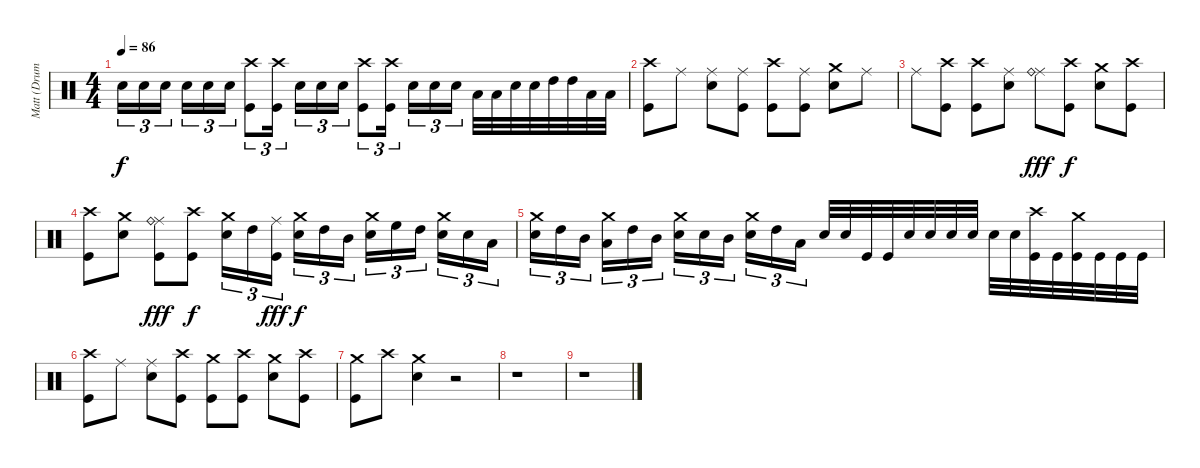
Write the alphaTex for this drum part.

\track ("Matt (Drums)" "Matt (Drum") {instrument percussion}
\staff {score}
\articulation defaults
\ts (4 4)
\tempo 86
\clef neutral
\ks c "Electric Snare (hit)".16{tu (3 2) dy f} "Electric Snare (hit)".16{tu (3 2)} "Electric Snare (hit)".16{tu (3 2)} "Electric Snare (hit)".16{tu (3 2)} "Electric Snare (hit)".16{tu (3 2)} "Electric Snare (hit)".16{tu (3 2)}
("Crash high (hit)" "Kick (hit)").8{tu (3 2)} ("Crash high (hit)" "Kick (hit)").16{tu (3 2)} "Electric Snare (hit)".16{tu (3 2)} "Electric Snare (hit)".16{tu (3 2)} "Electric Snare (hit)".16{tu (3 2)} ("Crash high (hit)" "Kick (hit)").8{tu (3 2)} ("Crash high (hit)" "Kick (hit)").16{tu (3 2)} "Electric Snare (hit)".16{tu (3 2)} "Electric Snare (hit)".16{tu (3 2)} "Electric Snare (hit)".16{tu (3 2)} "Low Tom (hit)".32 "Low Tom (hit)".32 "Electric Snare (hit)".32 "Electric Snare (hit)".32 "High Tom (hit)".32 "High Tom (hit)".32 "Low Tom (hit)".32 "Low Tom (hit)".32 |
("Crash high (hit)" "Kick (hit)").8 "Ride (middle)".8 ("Ride (middle)" "Electric Snare (hit)").8 ("Ride (middle)" "Kick (hit)").8 ("Crash high (hit)" "Kick (hit)").8 ("Ride (middle)" "Kick (hit)").8 ("Crash medium (hit)" "Electric Snare (hit)").8 "Ride (middle)".8 |
"Ride (middle)".8 ("Crash high (hit)" "Kick (hit)").8 ("Crash high (hit)" "Kick (hit)").8 ("Ride (middle)" "Electric Snare (hit)").8 ("Ride (middle)" "Ride (bell)").8{dy fff} ("Crash high (hit)" "Kick (hit)").8{dy f} ("Crash medium (hit)" "Electric Snare (hit)").8 ("Crash high (hit)" "Kick (hit)").8 |
("Crash high (hit)" "Kick (hit)").8 ("Crash medium (hit)" "Electric Snare (hit)").8 ("Ride (middle)" "Ride (bell)" "Kick (hit)").8{dy fff} ("Crash high (hit)" "Kick (hit)").8{dy f} ("Crash medium (hit)" "Electric Snare (hit)").16{tu (3 2)} "High Tom (hit)".16{tu (3 2)} ("Ride (middle)" "Kick (hit)").16{tu (3 2) dy fff} ("Crash medium (hit)" "Electric Snare (hit)").16{tu (3 2) dy f} "High Tom (hit)".16{tu (3 2)} "Mid Tom (hit)".16{tu (3 2)} ("Crash medium (hit)" "Electric Snare (hit)").16{tu (3 2)} "High Floor Tom (hit)".16{tu (3 2)} "High Tom (hit)".16{tu (3 2)} ("Crash medium (hit)" "Electric Snare (hit)").16{tu (3 2)} "Electric Snare (hit)".16{tu (3 2)} "Low Tom (hit)".16{tu (3 2)} |
("Crash medium (hit)" "Electric Snare (hit)").16{tu (3 2)} "High Tom (hit)".16{tu (3 2)} "Mid Tom (hit)".16{tu (3 2)} ("Crash medium (hit)" "Low Tom (hit)").16{tu (3 2)} "High Tom (hit)".16{tu (3 2)} "Mid Tom (hit)".16{tu (3 2)} ("Crash medium (hit)" "Electric Snare (hit)").16{tu (3 2)} "Electric Snare (hit)".16{tu (3 2)} "Mid Tom (hit)".16{tu (3 2)} ("Crash medium (hit)" "Electric Snare (hit)").16{tu (3 2)} "High Tom (hit)".16{tu (3 2)} "Low Tom (hit)".16{tu (3 2)} "Electric Snare (hit)".32 "Electric Snare (hit)".32 "Kick (hit)".32 "Kick (hit)".32 "Electric Snare (hit)".32 "Electric Snare (hit)".32 "Electric Snare (hit)".32 "Electric Snare (hit)".32 "Electric Snare (hit)".32 "Electric Snare (hit)".32 ("Crash high (hit)" "Kick (hit)").32 "Kick (hit)".32 ("Crash medium (hit)" "Kick (hit)").32 "Kick (hit)".32 "Kick (hit)".32 "Kick (hit)".32 |
("Crash high (hit)" "Kick (hit)").8 "Ride (middle)".8 ("Ride (middle)" "Electric Snare (hit)").8 ("Crash high (hit)" "Kick (hit)").8 ("Crash medium (hit)" "Kick (hit)").8 ("Crash high (hit)" "Kick (hit)").8 ("Crash medium (hit)" "Electric Snare (hit)").8 ("Crash high (hit)" "Kick (hit)").8 |
("Crash medium (hit)" "Kick (hit)").8 "Crash high (hit)".8 ("Crash medium (hit)" "Electric Snare (hit)").4 r.2 |
r.1 |
r.1
